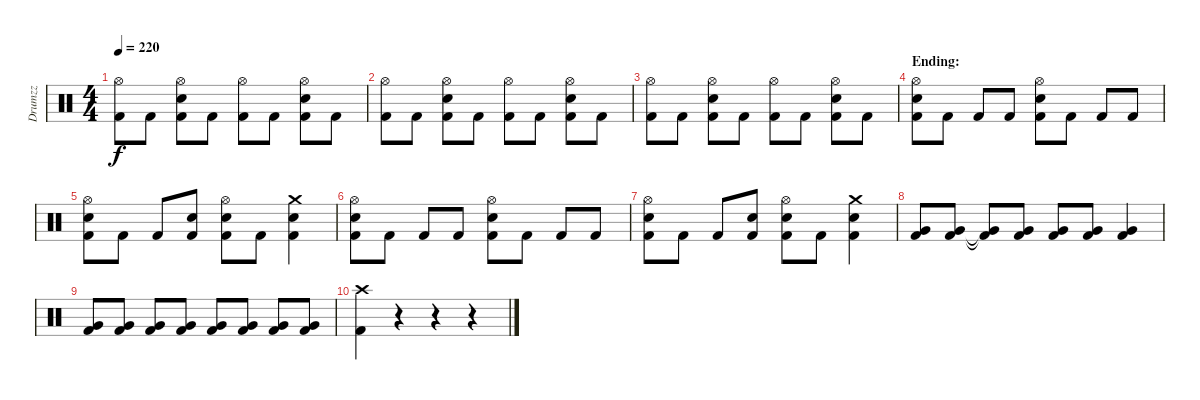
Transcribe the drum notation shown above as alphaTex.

\track ("Drumzz" "Drumzz") {instrument percussion}
\staff {score}
\articulation defaults
\ts (4 4)
\tempo 220
\clef neutral
\ks c
("Hi-Hat (open)" "Kick (hit) 2").8{dy f} "Kick (hit) 2".8 ("Hi-Hat (open)" "Electric Snare (hit)" "Kick (hit) 2").8 "Kick (hit) 2".8 ("Hi-Hat (open)" "Kick (hit) 2").8 "Kick (hit) 2".8 ("Hi-Hat (open)" "Electric Snare (hit)" "Kick (hit) 2").8 "Kick (hit) 2".8 |
("Hi-Hat (open)" "Kick (hit) 2").8 "Kick (hit) 2".8 ("Hi-Hat (open)" "Electric Snare (hit)" "Kick (hit) 2").8 "Kick (hit) 2".8 ("Hi-Hat (open)" "Kick (hit) 2").8 "Kick (hit) 2".8 ("Hi-Hat (open)" "Electric Snare (hit)" "Kick (hit) 2").8 "Kick (hit) 2".8 |
("Hi-Hat (open)" "Kick (hit) 2").8 "Kick (hit) 2".8 ("Hi-Hat (open)" "Electric Snare (hit)" "Kick (hit) 2").8 "Kick (hit) 2".8 ("Hi-Hat (open)" "Kick (hit) 2").8 "Kick (hit) 2".8 ("Hi-Hat (open)" "Electric Snare (hit)" "Kick (hit) 2").8 "Kick (hit) 2".8 |
\section ("" "Ending:")
("Hi-Hat (open)" "Electric Snare (hit)" "Kick (hit) 2").8 "Kick (hit) 2".8 "Kick (hit) 2".8 "Kick (hit) 2".8 ("Hi-Hat (open)" "Electric Snare (hit)" "Kick (hit) 2").8 "Kick (hit) 2".8 "Kick (hit) 2".8 "Kick (hit) 2".8 |
("Hi-Hat (open)" "Electric Snare (hit)" "Kick (hit) 2").8 "Kick (hit) 2".8 "Kick (hit) 2".8 ("Electric Snare (hit)" "Kick (hit) 2").8 ("Hi-Hat (open)" "Electric Snare (hit)" "Kick (hit) 2").8 "Kick (hit) 2".8 ("Crash medium (hit)" "Electric Snare (hit)" "Kick (hit) 2").4 |
("Hi-Hat (open)" "Electric Snare (hit)" "Kick (hit) 2").8 "Kick (hit) 2".8 "Kick (hit) 2".8 "Kick (hit) 2".8 ("Hi-Hat (open)" "Electric Snare (hit)" "Kick (hit) 2").8 "Kick (hit) 2".8 "Kick (hit) 2".8 "Kick (hit) 2".8 |
("Hi-Hat (open)" "Electric Snare (hit)" "Kick (hit) 2").8 "Kick (hit) 2".8 "Kick (hit) 2".8 ("Electric Snare (hit)" "Kick (hit) 2").8 ("Hi-Hat (open)" "Electric Snare (hit)" "Kick (hit) 2").8 "Kick (hit) 2".8 ("Crash medium (hit)" "Electric Snare (hit)" "Kick (hit) 2").4 |
("Very Low Tom (hit)" "Kick (hit) 2").8 ("Very Low Tom (hit)" "Kick (hit) 2").8 ("Very Low Tom (hit)"{t} "Kick (hit) 2"{t}).8 ("Very Low Tom (hit)" "Kick (hit) 2").8 ("Very Low Tom (hit)" "Kick (hit) 2").8 ("Very Low Tom (hit)" "Kick (hit) 2").8 ("Very Low Tom (hit)" "Kick (hit) 2").4 |
("Very Low Tom (hit)" "Kick (hit) 2").8 ("Very Low Tom (hit)" "Kick (hit) 2").8 ("Very Low Tom (hit)" "Kick (hit) 2").8 ("Very Low Tom (hit)" "Kick (hit) 2").8 ("Very Low Tom (hit)" "Kick (hit) 2").8 ("Very Low Tom (hit)" "Kick (hit) 2").8 ("Very Low Tom (hit)" "Kick (hit) 2").8 ("Very Low Tom (hit)" "Kick (hit) 2").8 |
("Crash high (hit)" "Kick (hit) 2").4 r.4 r.4 r.4
